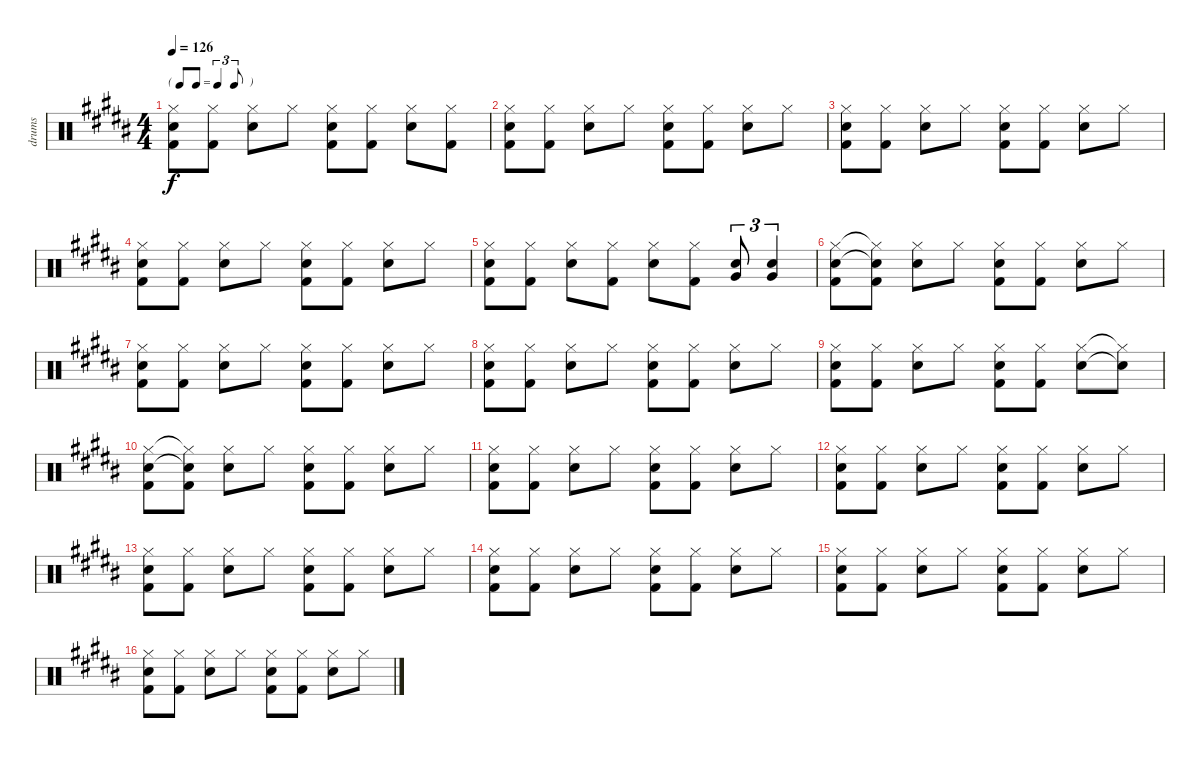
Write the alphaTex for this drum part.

\track ("drums" "drums") {instrument percussion}
\staff {score}
\articulation defaults
\ts (4 4)
\tf triplet8th
\tempo 126
\clef neutral
\ks b
("Hi-Hat (closed)" "Electric Snare (hit)" "Kick (hit) 2").8{dy f} ("Hi-Hat (closed)" "Kick (hit) 2").8 ("Hi-Hat (closed)" "Electric Snare (hit)").8 "Hi-Hat (closed)".8 ("Hi-Hat (closed)" "Electric Snare (hit)" "Kick (hit) 2").8 ("Hi-Hat (closed)" "Kick (hit) 2").8 ("Hi-Hat (closed)" "Electric Snare (hit)").8 ("Hi-Hat (closed)" "Kick (hit) 2").8 |
("Hi-Hat (closed)" "Electric Snare (hit)" "Kick (hit) 2").8 ("Hi-Hat (closed)" "Kick (hit) 2").8 ("Hi-Hat (closed)" "Electric Snare (hit)").8 "Hi-Hat (closed)".8 ("Hi-Hat (closed)" "Electric Snare (hit)" "Kick (hit) 2").8 ("Hi-Hat (closed)" "Kick (hit) 2").8 ("Hi-Hat (closed)" "Electric Snare (hit)").8 "Hi-Hat (closed)".8 |
("Hi-Hat (closed)" "Electric Snare (hit)" "Kick (hit) 2").8 ("Hi-Hat (closed)" "Kick (hit) 2").8 ("Hi-Hat (closed)" "Electric Snare (hit)").8 "Hi-Hat (closed)".8 ("Hi-Hat (closed)" "Electric Snare (hit)" "Kick (hit) 2").8 ("Hi-Hat (closed)" "Kick (hit) 2").8 ("Hi-Hat (closed)" "Electric Snare (hit)").8 "Hi-Hat (closed)".8 |
("Hi-Hat (closed)" "Electric Snare (hit)" "Kick (hit) 2").8 ("Hi-Hat (closed)" "Kick (hit) 2").8 ("Hi-Hat (closed)" "Electric Snare (hit)").8 "Hi-Hat (closed)".8 ("Hi-Hat (closed)" "Electric Snare (hit)" "Kick (hit) 2").8 ("Hi-Hat (closed)" "Kick (hit) 2").8 ("Hi-Hat (closed)" "Electric Snare (hit)").8 "Hi-Hat (closed)".8 |
("Hi-Hat (closed)" "Electric Snare (hit)" "Kick (hit) 2").8 ("Hi-Hat (closed)" "Kick (hit) 2").8 ("Hi-Hat (closed)" "Electric Snare (hit)").8 ("Hi-Hat (closed)" "Kick (hit) 2").8 ("Hi-Hat (closed)" "Electric Snare (hit)").8 ("Hi-Hat (closed)" "Kick (hit) 2").8 ("Electric Snare (hit)" "Very Low Tom (hit)").8{tu (3 2)} ("Electric Snare (hit)" "Very Low Tom (hit)").4{tu (3 2)} |
("Hi-Hat (closed)" "Electric Snare (hit)" "Kick (hit) 2").8 ("Hi-Hat (closed)"{t} "Snare (hit)"{t} "Kick (hit) 2").8 ("Hi-Hat (closed)" "Electric Snare (hit)").8 "Hi-Hat (closed)".8 ("Hi-Hat (closed)" "Electric Snare (hit)" "Kick (hit) 2").8 ("Hi-Hat (closed)" "Kick (hit) 2").8 ("Hi-Hat (closed)" "Electric Snare (hit)").8 "Hi-Hat (closed)".8 |
("Hi-Hat (closed)" "Electric Snare (hit)" "Kick (hit) 2").8 ("Hi-Hat (closed)" "Kick (hit) 2").8 ("Hi-Hat (closed)" "Electric Snare (hit)").8 "Hi-Hat (closed)".8 ("Hi-Hat (closed)" "Electric Snare (hit)" "Kick (hit) 2").8 ("Hi-Hat (closed)" "Kick (hit) 2").8 ("Hi-Hat (closed)" "Electric Snare (hit)").8 "Hi-Hat (closed)".8 |
("Hi-Hat (closed)" "Electric Snare (hit)" "Kick (hit) 2").8 ("Hi-Hat (closed)" "Kick (hit) 2").8 ("Hi-Hat (closed)" "Electric Snare (hit)").8 "Hi-Hat (closed)".8 ("Hi-Hat (closed)" "Electric Snare (hit)" "Kick (hit) 2").8 ("Hi-Hat (closed)" "Kick (hit) 2").8 ("Hi-Hat (closed)" "Electric Snare (hit)").8 "Hi-Hat (closed)".8 |
("Hi-Hat (closed)" "Electric Snare (hit)" "Kick (hit) 2").8 ("Hi-Hat (closed)" "Kick (hit) 2").8 ("Hi-Hat (closed)" "Electric Snare (hit)").8 "Hi-Hat (closed)".8 ("Hi-Hat (closed)" "Electric Snare (hit)" "Kick (hit) 2").8 ("Hi-Hat (closed)" "Kick (hit) 2").8 ("Hi-Hat (closed)" "Electric Snare (hit)").8 ("Hi-Hat (closed)"{t} "Snare (hit)"{t}).8 |
("Hi-Hat (closed)" "Electric Snare (hit)" "Kick (hit) 2").8 ("Hi-Hat (closed)"{t} "Snare (hit)"{t} "Kick (hit) 2").8 ("Hi-Hat (closed)" "Electric Snare (hit)").8 "Hi-Hat (closed)".8 ("Hi-Hat (closed)" "Electric Snare (hit)" "Kick (hit) 2").8 ("Hi-Hat (closed)" "Kick (hit) 2").8 ("Hi-Hat (closed)" "Electric Snare (hit)").8 "Hi-Hat (closed)".8 |
("Hi-Hat (closed)" "Electric Snare (hit)" "Kick (hit) 2").8 ("Hi-Hat (closed)" "Kick (hit) 2").8 ("Hi-Hat (closed)" "Electric Snare (hit)").8 "Hi-Hat (closed)".8 ("Hi-Hat (closed)" "Electric Snare (hit)" "Kick (hit) 2").8 ("Hi-Hat (closed)" "Kick (hit) 2").8 ("Hi-Hat (closed)" "Electric Snare (hit)").8 "Hi-Hat (closed)".8 |
("Hi-Hat (closed)" "Electric Snare (hit)" "Kick (hit) 2").8 ("Hi-Hat (closed)" "Kick (hit) 2").8 ("Hi-Hat (closed)" "Electric Snare (hit)").8 "Hi-Hat (closed)".8 ("Hi-Hat (closed)" "Electric Snare (hit)" "Kick (hit) 2").8 ("Hi-Hat (closed)" "Kick (hit) 2").8 ("Hi-Hat (closed)" "Electric Snare (hit)").8 "Hi-Hat (closed)".8 |
("Hi-Hat (closed)" "Electric Snare (hit)" "Kick (hit) 2").8 ("Hi-Hat (closed)" "Kick (hit) 2").8 ("Hi-Hat (closed)" "Electric Snare (hit)").8 "Hi-Hat (closed)".8 ("Hi-Hat (closed)" "Electric Snare (hit)" "Kick (hit) 2").8 ("Hi-Hat (closed)" "Kick (hit) 2").8 ("Hi-Hat (closed)" "Electric Snare (hit)").8 "Hi-Hat (closed)".8 |
("Hi-Hat (closed)" "Electric Snare (hit)" "Kick (hit) 2").8 ("Hi-Hat (closed)" "Kick (hit) 2").8 ("Hi-Hat (closed)" "Electric Snare (hit)").8 "Hi-Hat (closed)".8 ("Hi-Hat (closed)" "Electric Snare (hit)" "Kick (hit) 2").8 ("Hi-Hat (closed)" "Kick (hit) 2").8 ("Hi-Hat (closed)" "Electric Snare (hit)").8 "Hi-Hat (closed)".8 |
("Hi-Hat (closed)" "Electric Snare (hit)" "Kick (hit) 2").8 ("Hi-Hat (closed)" "Kick (hit) 2").8 ("Hi-Hat (closed)" "Electric Snare (hit)").8 "Hi-Hat (closed)".8 ("Hi-Hat (closed)" "Electric Snare (hit)" "Kick (hit) 2").8 ("Hi-Hat (closed)" "Kick (hit) 2").8 ("Hi-Hat (closed)" "Electric Snare (hit)").8 "Hi-Hat (closed)".8 |
("Hi-Hat (closed)" "Electric Snare (hit)" "Kick (hit) 2").8 ("Hi-Hat (closed)" "Kick (hit) 2").8 ("Hi-Hat (closed)" "Electric Snare (hit)").8 "Hi-Hat (closed)".8 ("Hi-Hat (closed)" "Electric Snare (hit)" "Kick (hit) 2").8 ("Hi-Hat (closed)" "Kick (hit) 2").8 ("Hi-Hat (closed)" "Electric Snare (hit)").8 "Hi-Hat (closed)".8
